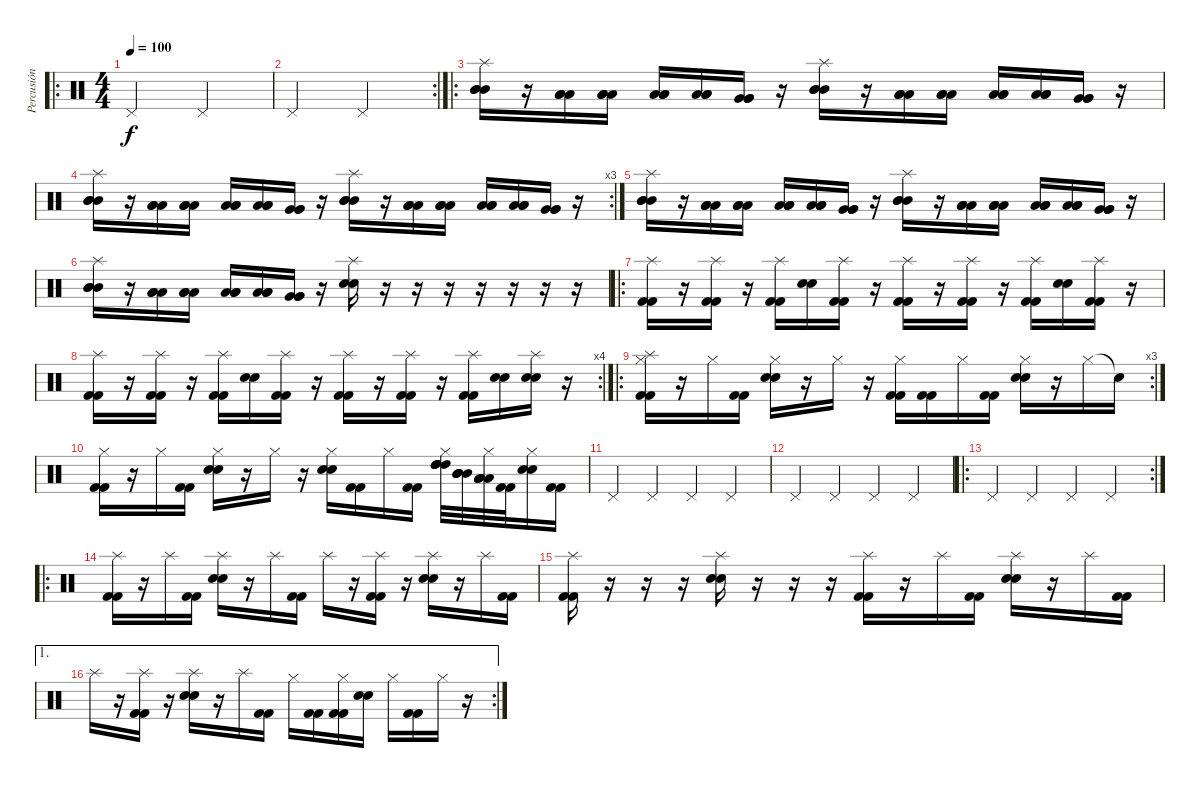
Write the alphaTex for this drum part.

\track ("Percusión" "Percusión") {instrument percussion}
\staff {score}
\articulation defaults
\ro
\ts (4 4)
\tempo 100
\clef neutral
\ks c "Pedal Hi-Hat (hit)".2{dy f} "Pedal Hi-Hat (hit)".2
|
\rc 2 "Pedal Hi-Hat (hit)".2 "Pedal Hi-Hat (hit)".2
|
\ro
("Splash (hit)" "Mid Tom (hit)" "Mid Tom (hit)" "Mid Tom (hit)").16 r.16 ("Low Tom (hit)" "Low Tom (hit)" "Low Tom (hit)").16 ("Low Tom (hit)" "Low Tom (hit)" "Low Tom (hit)").16 ("Low Tom (hit)" "Low Tom (hit)" "Low Tom (hit)").16 ("Low Tom (hit)" "Low Tom (hit)" "Low Tom (hit)").16 ("Very Low Tom (hit)" "Very Low Tom (hit)" "Very Low Tom (hit)").16 r.16 ("Splash (hit)" "Mid Tom (hit)" "Mid Tom (hit)" "Mid Tom (hit)").16 r.16 ("Low Tom (hit)" "Low Tom (hit)" "Low Tom (hit)").16 ("Low Tom (hit)" "Low Tom (hit)" "Low Tom (hit)").16 ("Low Tom (hit)" "Low Tom (hit)" "Low Tom (hit)").16 ("Low Tom (hit)" "Low Tom (hit)" "Low Tom (hit)").16 ("Very Low Tom (hit)" "Very Low Tom (hit)" "Very Low Tom (hit)").16 r.16 |
\rc 3
("Splash (hit)" "Mid Tom (hit)" "Mid Tom (hit)" "Mid Tom (hit)").16 r.16 ("Low Tom (hit)" "Low Tom (hit)" "Low Tom (hit)").16 ("Low Tom (hit)" "Low Tom (hit)" "Low Tom (hit)").16 ("Low Tom (hit)" "Low Tom (hit)" "Low Tom (hit)").16 ("Low Tom (hit)" "Low Tom (hit)" "Low Tom (hit)").16 ("Very Low Tom (hit)" "Very Low Tom (hit)" "Very Low Tom (hit)").16 r.16 ("Splash (hit)" "Mid Tom (hit)" "Mid Tom (hit)" "Mid Tom (hit)").16 r.16 ("Low Tom (hit)" "Low Tom (hit)" "Low Tom (hit)").16 ("Low Tom (hit)" "Low Tom (hit)" "Low Tom (hit)").16 ("Low Tom (hit)" "Low Tom (hit)" "Low Tom (hit)").16 ("Low Tom (hit)" "Low Tom (hit)" "Low Tom (hit)").16 ("Very Low Tom (hit)" "Very Low Tom (hit)" "Very Low Tom (hit)").16 r.16 |
("Splash (hit)" "Mid Tom (hit)" "Mid Tom (hit)" "Mid Tom (hit)").16 r.16 ("Low Tom (hit)" "Low Tom (hit)" "Low Tom (hit)").16 ("Low Tom (hit)" "Low Tom (hit)" "Low Tom (hit)").16 ("Low Tom (hit)" "Low Tom (hit)" "Low Tom (hit)").16 ("Low Tom (hit)" "Low Tom (hit)" "Low Tom (hit)").16 ("Very Low Tom (hit)" "Very Low Tom (hit)" "Very Low Tom (hit)").16 r.16 ("Splash (hit)" "Mid Tom (hit)" "Mid Tom (hit)" "Mid Tom (hit)").16 r.16 ("Low Tom (hit)" "Low Tom (hit)" "Low Tom (hit)").16 ("Low Tom (hit)" "Low Tom (hit)" "Low Tom (hit)").16 ("Low Tom (hit)" "Low Tom (hit)" "Low Tom (hit)").16 ("Low Tom (hit)" "Low Tom (hit)" "Low Tom (hit)").16 ("Very Low Tom (hit)" "Very Low Tom (hit)" "Very Low Tom (hit)").16 r.16 |
("Splash (hit)" "Mid Tom (hit)" "Mid Tom (hit)" "Mid Tom (hit)").16 r.16 ("Low Tom (hit)" "Low Tom (hit)" "Low Tom (hit)").16 ("Low Tom (hit)" "Low Tom (hit)" "Low Tom (hit)").16 ("Low Tom (hit)" "Low Tom (hit)" "Low Tom (hit)").16 ("Low Tom (hit)" "Low Tom (hit)" "Low Tom (hit)").16 ("Very Low Tom (hit)" "Very Low Tom (hit)" "Very Low Tom (hit)").16 r.16 ("Splash (hit)" "Electric Snare (hit)" "Electric Snare (hit)").16 r.16 r.16 r.16 r.16 r.16 r.16 r.16 |
\ro
("Splash (hit)" "Kick (hit) 2" "Kick (hit) 2").16 r.16 ("Splash (hit)" "Kick (hit) 2" "Kick (hit) 2").16 r.16 ("Splash (hit)" "Kick (hit) 2" "Kick (hit) 2").16 ("Electric Snare (hit)" "Electric Snare (hit)").16 ("Splash (hit)" "Kick (hit) 2" "Kick (hit) 2").16 r.16 ("Splash (hit)" "Kick (hit) 2" "Kick (hit) 2").16 r.16 ("Splash (hit)" "Kick (hit) 2" "Kick (hit) 2").16 r.16 ("Splash (hit)" "Kick (hit) 2" "Kick (hit) 2").16 ("Electric Snare (hit)" "Electric Snare (hit)").16 ("Splash (hit)" "Kick (hit) 2" "Kick (hit) 2").16 r.16 |
\rc 4
("Splash (hit)" "Kick (hit) 2" "Kick (hit) 2").16 r.16 ("Splash (hit)" "Kick (hit) 2" "Kick (hit) 2").16 r.16 ("Splash (hit)" "Kick (hit) 2" "Kick (hit) 2").16 ("Electric Snare (hit)" "Electric Snare (hit)").16 ("Splash (hit)" "Kick (hit) 2" "Kick (hit) 2").16 r.16 ("Splash (hit)" "Kick (hit) 2" "Kick (hit) 2").16 r.16 ("Splash (hit)" "Kick (hit) 2" "Kick (hit) 2").16 r.16 ("Splash (hit)" "Kick (hit) 2" "Kick (hit) 2").16 ("Electric Snare (hit)" "Electric Snare (hit)").16 ("Splash (hit)" "Electric Snare (hit)" "Electric Snare (hit)").16 r.16 |
\ro
\rc 3
("Hi-Hat (closed)" "Splash (hit)" "Kick (hit) 2" "Kick (hit) 2").16 r.16 "Hi-Hat (closed)".16 ("Kick (hit) 2" "Kick (hit) 2").16 ("Hi-Hat (closed)" "Electric Snare (hit)" "Electric Snare (hit)").16 r.16 "Hi-Hat (closed)".16 r.16 ("Hi-Hat (closed)" "Kick (hit) 2" "Kick (hit) 2").16 ("Kick (hit) 2" "Kick (hit) 2").16 "Hi-Hat (closed)".16 ("Kick (hit) 2" "Kick (hit) 2").16 ("Hi-Hat (closed)" "Electric Snare (hit)" "Electric Snare (hit)").16 r.16 "Hi-Hat (closed)".16 "Snare (hit)"{t}.16 |
("Hi-Hat (closed)" "Kick (hit) 2" "Kick (hit) 2").16 r.16 "Hi-Hat (closed)".16 ("Kick (hit) 2" "Kick (hit) 2").16 ("Hi-Hat (closed)" "Electric Snare (hit)" "Electric Snare (hit)").16 r.16 "Hi-Hat (closed)".16 r.16 ("Hi-Hat (closed)" "Electric Snare (hit)" "Electric Snare (hit)").16 ("Kick (hit) 2" "Kick (hit) 2").16 "Hi-Hat (closed)".16 ("Kick (hit) 2" "Kick (hit) 2").16 ("Hi-Hat (closed)" "High Tom (hit)" "High Tom (hit)" "High Tom (hit)" "High Tom (hit)").32 ("Mid Tom (hit)" "Mid Tom (hit)" "Mid Tom (hit)" "Mid Tom (hit)").32 ("Hi-Hat (closed)" "Low Tom (hit)" "Low Tom (hit)" "Low Tom (hit)" "Low Tom (hit)").32 ("Kick (hit) 2" "Kick (hit) 2").32 ("Hi-Hat (closed)" "Electric Snare (hit)" "Electric Snare (hit)").16 ("Kick (hit) 2" "Kick (hit) 2").16 |
"Pedal Hi-Hat (hit)".4 "Pedal Hi-Hat (hit)".4 "Pedal Hi-Hat (hit)".4 "Pedal Hi-Hat (hit)".4 |
"Pedal Hi-Hat (hit)".4 "Pedal Hi-Hat (hit)".4 "Pedal Hi-Hat (hit)".4 "Pedal Hi-Hat (hit)".4 |
\ro
\rc 2 "Pedal Hi-Hat (hit)".4 "Pedal Hi-Hat (hit)".4 "Pedal Hi-Hat (hit)".4 "Pedal Hi-Hat (hit)".4
|
\ro
("Splash (hit)" "Kick (hit) 2" "Kick (hit) 2").16 r.16 "Splash (hit)".16 ("Kick (hit) 2" "Kick (hit) 2").16 ("Splash (hit)" "Electric Snare (hit)" "Electric Snare (hit)").16 r.16 "Splash (hit)".16 ("Kick (hit) 2" "Kick (hit) 2").16 "Splash (hit)".16 r.16 ("Splash (hit)" "Kick (hit) 2" "Kick (hit) 2").16 r.16 ("Splash (hit)" "Electric Snare (hit)" "Electric Snare (hit)").16 r.16 "Splash (hit)".16 ("Kick (hit) 2" "Kick (hit) 2").16 |
("Splash (hit)" "Kick (hit) 2" "Kick (hit) 2").16 r.16 r.16 r.16 ("Splash (hit)" "Electric Snare (hit)" "Electric Snare (hit)").16 r.16 r.16 r.16 ("Splash (hit)" "Kick (hit) 2" "Kick (hit) 2").16 r.16 "Splash (hit)".16 ("Kick (hit) 2" "Kick (hit) 2").16 ("Splash (hit)" "Electric Snare (hit)" "Electric Snare (hit)").16 r.16 "Splash (hit)".16 ("Kick (hit) 2" "Kick (hit) 2").16 |
\ae 1
\rc 2 "Splash (hit)".16
r.16 ("Splash (hit)" "Kick (hit) 2" "Kick (hit) 2").16 r.16 ("Splash (hit)" "Electric Snare (hit)" "Electric Snare (hit)").16 r.16 "Splash (hit)".16 ("Kick (hit) 2" "Kick (hit) 2").16 "Hi-Hat (closed)".16 ("Kick (hit) 2" "Kick (hit) 2").16 ("Hi-Hat (closed)" "Kick (hit) 2" "Kick (hit) 2").16 ("Electric Snare (hit)" "Electric Snare (hit)").16 "Hi-Hat (closed)".16 ("Kick (hit) 2" "Kick (hit) 2").16 "Hi-Hat (closed)".16 r.16
